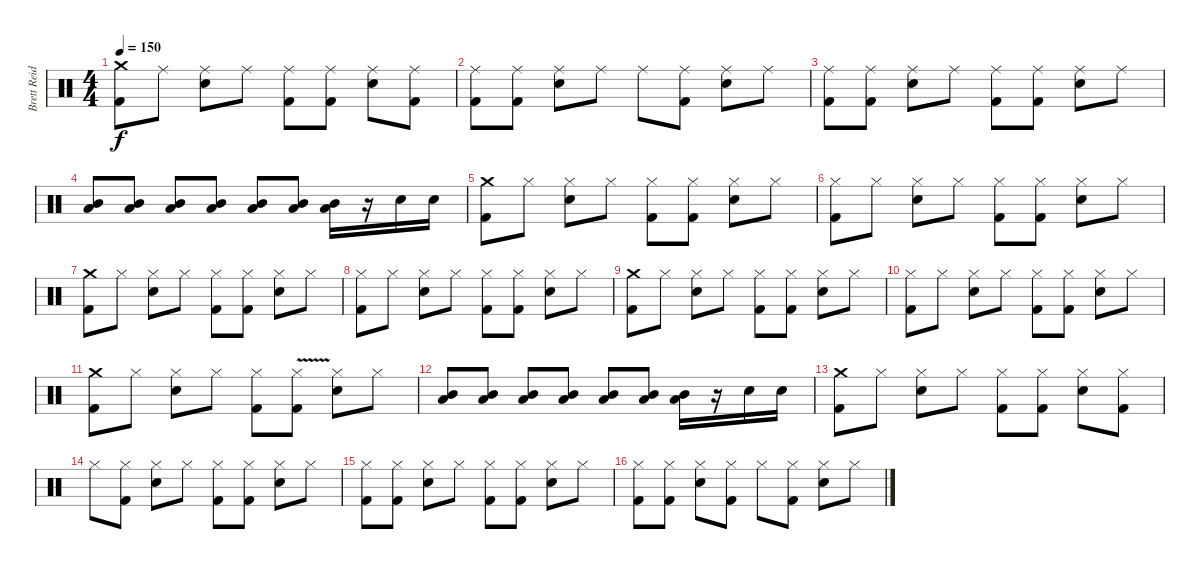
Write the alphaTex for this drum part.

\track ("Brett Reid" "Brett Reid") {instrument percussion}
\staff {score}
\articulation defaults
\ts (4 4)
\tempo 150
\clef neutral
\ks c
("Crash medium (hit)" "Kick (hit) 2").8{dy f} "Ride (middle)".8 ("Ride (middle)" "Snare (hit) 2").8 "Ride (middle)".8 ("Ride (middle)" "Kick (hit) 2").8 ("Ride (middle)" "Kick (hit) 2").8 ("Ride (middle)" "Snare (hit) 2").8 ("Ride (middle)" "Kick (hit) 2").8 |
("Ride (middle)" "Kick (hit) 2").8 ("Ride (middle)" "Kick (hit) 2").8 ("Ride (middle)" "Snare (hit) 2").8 "Ride (middle)".8 "Ride (middle)".8 ("Ride (middle)" "Kick (hit) 2").8 ("Ride (middle)" "Snare (hit) 2").8 "Ride (middle)".8 |
("Ride (middle)" "Kick (hit) 2").8 ("Ride (middle)" "Kick (hit) 2").8 ("Ride (middle)" "Snare (hit) 2").8 "Ride (middle)".8 ("Ride (middle)" "Kick (hit) 2").8 ("Ride (middle)" "Kick (hit) 2").8 ("Ride (middle)" "Snare (hit) 2").8 "Ride (middle)".8 |
("Mid Tom (hit)" "Low Floor Tom (hit)").8 ("Mid Tom (hit)" "Low Floor Tom (hit)").8 ("Mid Tom (hit)" "Low Floor Tom (hit)").8 ("Mid Tom (hit)" "Low Floor Tom (hit)").8 ("Mid Tom (hit)" "Low Floor Tom (hit)").8 ("Mid Tom (hit)" "Low Floor Tom (hit)").8 ("Mid Tom (hit)" "Low Floor Tom (hit)").16 r.16 "Snare (hit) 2".16 "Snare (hit) 2".16 |
("Crash medium (hit)" "Kick (hit) 2").8 "Hi-Hat (closed)".8 ("Hi-Hat (closed)" "Snare (hit) 2").8 "Hi-Hat (closed)".8 ("Hi-Hat (closed)" "Kick (hit) 2").8 ("Hi-Hat (closed)" "Kick (hit) 2").8 ("Hi-Hat (closed)" "Snare (hit) 2").8 "Hi-Hat (closed)".8 |
("Hi-Hat (closed)" "Kick (hit) 2").8 "Hi-Hat (closed)".8 ("Hi-Hat (closed)" "Snare (hit) 2").8 "Hi-Hat (closed)".8 ("Hi-Hat (closed)" "Kick (hit) 2").8 ("Hi-Hat (closed)" "Kick (hit) 2").8 ("Hi-Hat (closed)" "Snare (hit) 2").8 "Hi-Hat (closed)".8 |
("Crash medium (hit)" "Kick (hit) 2").8 "Hi-Hat (closed)".8 ("Hi-Hat (closed)" "Snare (hit) 2").8 "Hi-Hat (closed)".8 ("Hi-Hat (closed)" "Kick (hit) 2").8 ("Hi-Hat (closed)" "Kick (hit) 2").8 ("Hi-Hat (closed)" "Snare (hit) 2").8 "Hi-Hat (closed)".8 |
("Hi-Hat (closed)" "Kick (hit) 2").8 "Hi-Hat (closed)".8 ("Hi-Hat (closed)" "Snare (hit) 2").8 "Hi-Hat (closed)".8 ("Hi-Hat (closed)" "Kick (hit) 2").8 ("Hi-Hat (closed)" "Kick (hit) 2").8 ("Hi-Hat (closed)" "Snare (hit) 2").8 "Hi-Hat (closed)".8 |
("Crash medium (hit)" "Kick (hit) 2").8 "Hi-Hat (closed)".8 ("Hi-Hat (closed)" "Snare (hit) 2").8 "Hi-Hat (closed)".8 ("Hi-Hat (closed)" "Kick (hit) 2").8 ("Hi-Hat (closed)" "Kick (hit) 2").8 ("Hi-Hat (closed)" "Snare (hit) 2").8 "Hi-Hat (closed)".8 |
("Hi-Hat (closed)" "Kick (hit) 2").8 "Hi-Hat (closed)".8 ("Hi-Hat (closed)" "Snare (hit) 2").8 "Hi-Hat (closed)".8 ("Hi-Hat (closed)" "Kick (hit) 2").8 ("Hi-Hat (closed)" "Kick (hit) 2").8 ("Hi-Hat (closed)" "Snare (hit) 2").8 "Hi-Hat (closed)".8 |
("Crash medium (hit)" "Kick (hit) 2").8 "Hi-Hat (closed)".8 ("Hi-Hat (closed)" "Snare (hit) 2").8 "Hi-Hat (closed)".8 ("Hi-Hat (closed)" "Kick (hit) 2").8 ("Hi-Hat (closed)" "Kick (hit) 2"{v}).8 ("Hi-Hat (closed)" "Snare (hit) 2").8 "Hi-Hat (closed)".8 |
("Mid Tom (hit)" "Low Floor Tom (hit)").8 ("Mid Tom (hit)" "Low Floor Tom (hit)").8 ("Mid Tom (hit)" "Low Floor Tom (hit)").8 ("Mid Tom (hit)" "Low Floor Tom (hit)").8 ("Mid Tom (hit)" "Low Floor Tom (hit)").8 ("Mid Tom (hit)" "Low Floor Tom (hit)").8 ("Mid Tom (hit)" "Low Floor Tom (hit)").16 r.16 "Snare (hit) 2".16 "Snare (hit) 2".16 |
("Crash medium (hit)" "Kick (hit) 2").8 "Hi-Hat (closed)".8 ("Hi-Hat (closed)" "Snare (hit) 2").8 "Hi-Hat (closed)".8 ("Hi-Hat (closed)" "Kick (hit) 2").8 ("Hi-Hat (closed)" "Kick (hit) 2").8 ("Hi-Hat (closed)" "Snare (hit) 2").8 ("Hi-Hat (closed)" "Kick (hit) 2").8 |
"Hi-Hat (closed)".8 ("Hi-Hat (closed)" "Kick (hit) 2").8 ("Hi-Hat (closed)" "Snare (hit) 2").8 "Hi-Hat (closed)".8 ("Hi-Hat (closed)" "Kick (hit) 2").8 ("Hi-Hat (closed)" "Kick (hit) 2").8 ("Hi-Hat (closed)" "Snare (hit) 2").8 "Hi-Hat (closed)".8 |
("Hi-Hat (closed)" "Kick (hit) 2").8 ("Hi-Hat (closed)" "Kick (hit) 2").8 ("Hi-Hat (closed)" "Snare (hit) 2").8 "Hi-Hat (closed)".8 ("Hi-Hat (closed)" "Kick (hit) 2").8 ("Hi-Hat (closed)" "Kick (hit) 2").8 ("Hi-Hat (closed)" "Snare (hit) 2").8 "Hi-Hat (closed)".8 |
("Hi-Hat (closed)" "Kick (hit) 2").8 ("Hi-Hat (closed)" "Kick (hit) 2").8 ("Hi-Hat (closed)" "Snare (hit) 2").8 ("Hi-Hat (closed)" "Kick (hit) 2").8 "Hi-Hat (closed)".8 ("Hi-Hat (closed)" "Kick (hit) 2").8 ("Hi-Hat (closed)" "Snare (hit) 2").8 "Hi-Hat (closed)".8
